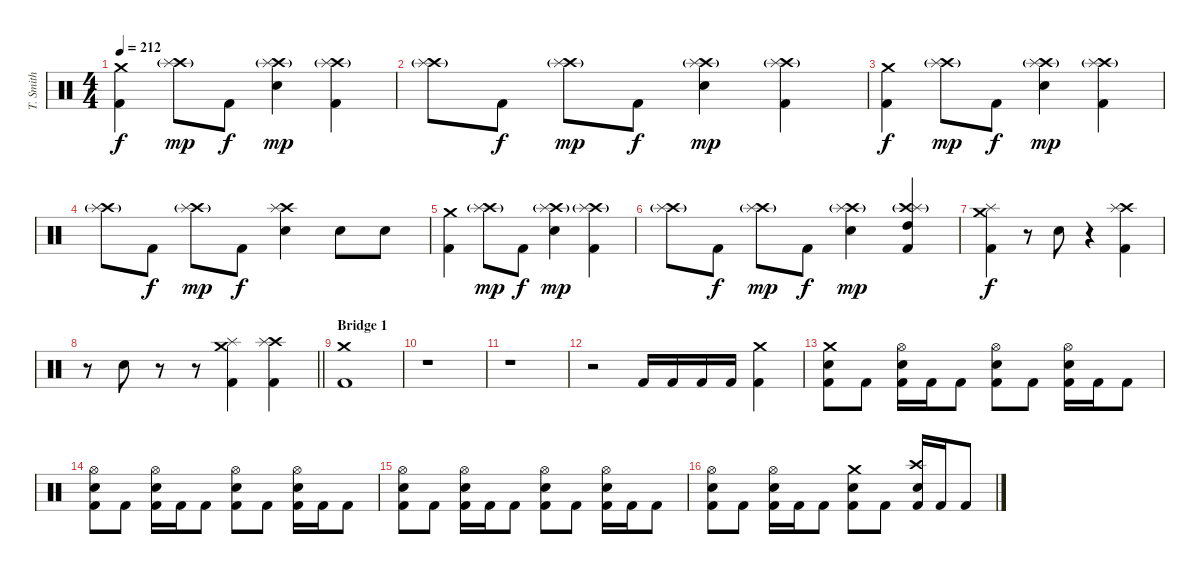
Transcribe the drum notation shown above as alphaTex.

\track ("T. Smith" "T. Smith") {instrument percussion}
\staff {score}
\articulation defaults
\ts (4 4)
\tempo 212
\clef neutral
\ks c
("Crash medium (hit)" "Kick (hit) 2").4{dy f} ("Crash high (hit)"{g} "Splash (hit)").8{dy mp} "Kick (hit) 2".8{dy f} ("Crash high (hit)"{g} "Splash (hit)" "Electric Snare (hit)").4{dy mp} ("Crash high (hit)"{g} "Splash (hit)" "Kick (hit) 2").4 |
("Crash high (hit)"{g} "Splash (hit)").8 "Kick (hit) 2".8{dy f} ("Crash high (hit)"{g} "Splash (hit)").8{dy mp} "Kick (hit) 2".8{dy f} ("Crash high (hit)"{g} "Splash (hit)" "Electric Snare (hit)").4{dy mp} ("Crash high (hit)"{g} "Splash (hit)" "Kick (hit) 2").4 |
("Crash medium (hit)" "Kick (hit) 2").4{dy f} ("Crash high (hit)"{g} "Splash (hit)").8{dy mp} "Kick (hit) 2".8{dy f} ("Crash high (hit)"{g} "Splash (hit)" "Electric Snare (hit)").4{dy mp} ("Crash high (hit)"{g} "Splash (hit)" "Kick (hit) 2").4 |
("Crash high (hit)"{g} "Splash (hit)").8 "Kick (hit) 2".8{dy f} ("Crash high (hit)"{g} "Splash (hit)").8{dy mp} "Kick (hit) 2".8{dy f} ("Crash high (hit)" "Splash (hit)" "Electric Snare (hit)").4 "Electric Snare (hit)".8 "Electric Snare (hit)".8 |
("Crash medium (hit)" "Kick (hit) 2").4 ("Crash high (hit)"{g} "Splash (hit)").8{dy mp} "Kick (hit) 2".8{dy f} ("Crash high (hit)"{g} "Splash (hit)" "Electric Snare (hit)").4{dy mp} ("Crash high (hit)"{g} "Splash (hit)" "Kick (hit) 2").4 |
("Crash high (hit)"{g} "Splash (hit)").8 "Kick (hit) 2".8{dy f} ("Crash high (hit)"{g} "Splash (hit)").8{dy mp} "Kick (hit) 2".8{dy f} ("Crash high (hit)"{g} "Splash (hit)" "Electric Snare (hit)").4{dy mp} ("Crash high (hit)"{g} "Splash (hit)" "High Tom (hit)" "Kick (hit) 2").4 |
("Crash medium (hit)" "Splash (hit)" "Kick (hit) 2").4{dy f} r.8 "Electric Snare (hit)".8 r.4 ("Crash high (hit)" "Splash (hit)" "Kick (hit) 2").4 |
\barLineRight lightlight
r.8 "Electric Snare (hit)".8 r.8 r.8 ("Crash medium (hit)" "Splash (hit)" "Kick (hit) 2").4 ("Crash high (hit)" "Splash (hit)" "Kick (hit) 2").4 |
\section ("" "Bridge 1")
("Crash medium (hit)" "Kick (hit) 2").1 |
r.1 |
r.1 |
r.2 "Kick (hit) 2".16 "Kick (hit) 2".16 "Kick (hit) 2".16 "Kick (hit) 2".16 ("Crash medium (hit)" "Kick (hit) 2").4 |
("Crash medium (hit)" "Electric Snare (hit)" "Kick (hit) 2").8 "Kick (hit) 2".8 ("Hi-Hat (open)" "Electric Snare (hit)" "Kick (hit) 2").16 "Kick (hit) 2".16 "Kick (hit) 2".8 ("Hi-Hat (open)" "Electric Snare (hit)" "Kick (hit) 2").8 "Kick (hit) 2".8 ("Hi-Hat (open)" "Electric Snare (hit)" "Kick (hit) 2").16 "Kick (hit) 2".16 "Kick (hit) 2".8 |
("Hi-Hat (open)" "Electric Snare (hit)" "Kick (hit) 2").8 "Kick (hit) 2".8 ("Hi-Hat (open)" "Electric Snare (hit)" "Kick (hit) 2").16 "Kick (hit) 2".16 "Kick (hit) 2".8 ("Hi-Hat (open)" "Electric Snare (hit)" "Kick (hit) 2").8 "Kick (hit) 2".8 ("Hi-Hat (open)" "Electric Snare (hit)" "Kick (hit) 2").16 "Kick (hit) 2".16 "Kick (hit) 2".8 |
("Hi-Hat (open)" "Electric Snare (hit)" "Kick (hit) 2").8 "Kick (hit) 2".8 ("Hi-Hat (open)" "Electric Snare (hit)" "Kick (hit) 2").16 "Kick (hit) 2".16 "Kick (hit) 2".8 ("Hi-Hat (open)" "Electric Snare (hit)" "Kick (hit) 2").8 "Kick (hit) 2".8 ("Hi-Hat (open)" "Electric Snare (hit)" "Kick (hit) 2").16 "Kick (hit) 2".16 "Kick (hit) 2".8 |
("Hi-Hat (open)" "Electric Snare (hit)" "Kick (hit) 2").8 "Kick (hit) 2".8 ("Hi-Hat (open)" "Electric Snare (hit)" "Kick (hit) 2").16 "Kick (hit) 2".16 "Kick (hit) 2".8 ("Crash medium (hit)" "Electric Snare (hit)" "Kick (hit) 2").8 "Kick (hit) 2".8 ("Crash high (hit)" "Electric Snare (hit)" "Kick (hit) 2").16 "Kick (hit) 2".16 "Kick (hit) 2".8
